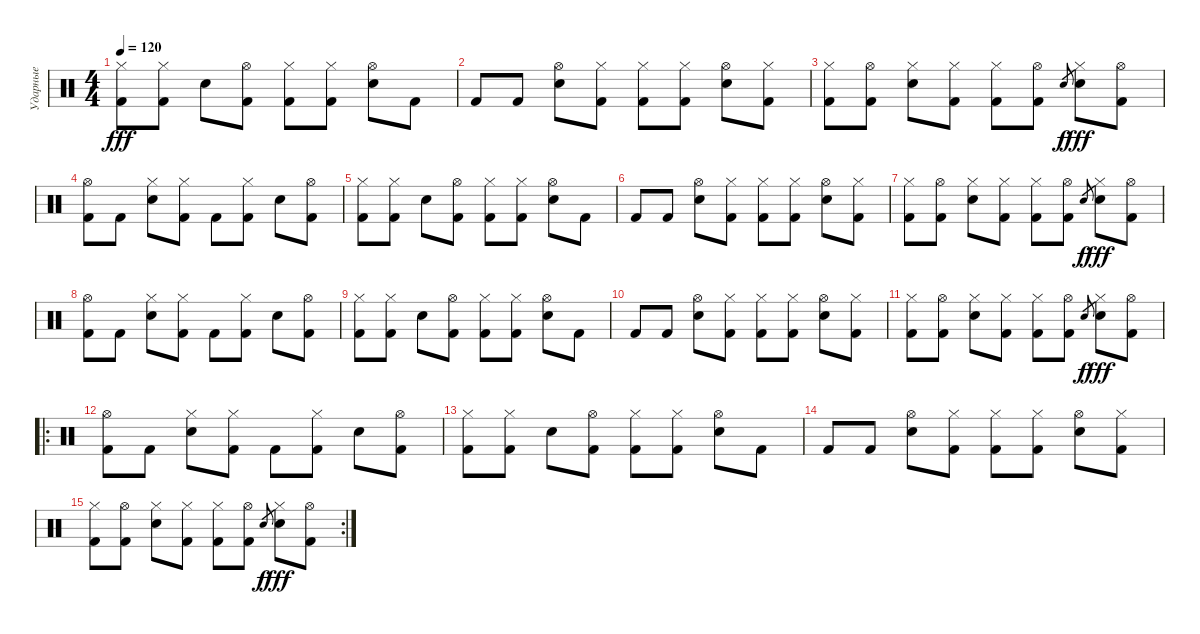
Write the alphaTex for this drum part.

\track ("Ударные" "Ударные") {instrument percussion}
\staff {score}
\articulation defaults
\ts (4 4)
\tempo 120
\clef neutral
\ks c
("Hi-Hat (closed)" "Kick (hit) 2").8{dy fff} ("Hi-Hat (closed)" "Kick (hit) 2").8 "Electric Snare (hit)".8 ("Hi-Hat (open)" "Kick (hit) 2").8 ("Hi-Hat (closed)" "Kick (hit) 2").8 ("Hi-Hat (closed)" "Kick (hit) 2").8 ("Hi-Hat (open)" "Electric Snare (hit)").8 "Kick (hit) 2".8 |
"Kick (hit) 2".8 "Kick (hit) 2".8 ("Hi-Hat (open)" "Electric Snare (hit)").8 ("Hi-Hat (closed)" "Kick (hit) 2").8 ("Hi-Hat (closed)" "Kick (hit) 2").8 ("Hi-Hat (closed)" "Kick (hit) 2").8 ("Hi-Hat (open)" "Electric Snare (hit)").8 ("Hi-Hat (closed)" "Kick (hit) 2").8 |
("Hi-Hat (closed)" "Kick (hit) 2").8 ("Hi-Hat (open)" "Kick (hit) 2").8 ("Hi-Hat (closed)" "Electric Snare (hit)").8 ("Hi-Hat (closed)" "Kick (hit) 2").8 ("Hi-Hat (closed)" "Kick (hit) 2").8 ("Hi-Hat (open)" "Kick (hit) 2").8 "Electric Snare (hit)".8{gr dy f} ("Hi-Hat (closed)" "Electric Snare (hit)").8{dy fff} ("Hi-Hat (open)" "Kick (hit) 2").8 |
("Hi-Hat (open)" "Kick (hit) 2").8 "Kick (hit) 2".8 ("Hi-Hat (closed)" "Electric Snare (hit)").8 ("Hi-Hat (closed)" "Kick (hit) 2").8 "Kick (hit) 2".8 ("Hi-Hat (closed)" "Kick (hit) 2").8 "Electric Snare (hit)".8 ("Hi-Hat (open)" "Kick (hit) 2").8 |
("Hi-Hat (closed)" "Kick (hit) 2").8 ("Hi-Hat (closed)" "Kick (hit) 2").8 "Electric Snare (hit)".8 ("Hi-Hat (open)" "Kick (hit) 2").8 ("Hi-Hat (closed)" "Kick (hit) 2").8 ("Hi-Hat (closed)" "Kick (hit) 2").8 ("Hi-Hat (open)" "Electric Snare (hit)").8 "Kick (hit) 2".8 |
"Kick (hit) 2".8 "Kick (hit) 2".8 ("Hi-Hat (open)" "Electric Snare (hit)").8 ("Hi-Hat (closed)" "Kick (hit) 2").8 ("Hi-Hat (closed)" "Kick (hit) 2").8 ("Hi-Hat (closed)" "Kick (hit) 2").8 ("Hi-Hat (open)" "Electric Snare (hit)").8 ("Hi-Hat (closed)" "Kick (hit) 2").8 |
("Hi-Hat (closed)" "Kick (hit) 2").8 ("Hi-Hat (open)" "Kick (hit) 2").8 ("Hi-Hat (closed)" "Electric Snare (hit)").8 ("Hi-Hat (closed)" "Kick (hit) 2").8 ("Hi-Hat (closed)" "Kick (hit) 2").8 ("Hi-Hat (open)" "Kick (hit) 2").8 "Electric Snare (hit)".8{gr dy f} ("Hi-Hat (closed)" "Electric Snare (hit)").8{dy fff} ("Hi-Hat (open)" "Kick (hit) 2").8 |
("Hi-Hat (open)" "Kick (hit) 2").8 "Kick (hit) 2".8 ("Hi-Hat (closed)" "Electric Snare (hit)").8 ("Hi-Hat (closed)" "Kick (hit) 2").8 "Kick (hit) 2".8 ("Hi-Hat (closed)" "Kick (hit) 2").8 "Electric Snare (hit)".8 ("Hi-Hat (open)" "Kick (hit) 2").8 |
("Hi-Hat (closed)" "Kick (hit) 2").8 ("Hi-Hat (closed)" "Kick (hit) 2").8 "Electric Snare (hit)".8 ("Hi-Hat (open)" "Kick (hit) 2").8 ("Hi-Hat (closed)" "Kick (hit) 2").8 ("Hi-Hat (closed)" "Kick (hit) 2").8 ("Hi-Hat (open)" "Electric Snare (hit)").8 "Kick (hit) 2".8 |
"Kick (hit) 2".8 "Kick (hit) 2".8 ("Hi-Hat (open)" "Electric Snare (hit)").8 ("Hi-Hat (closed)" "Kick (hit) 2").8 ("Hi-Hat (closed)" "Kick (hit) 2").8 ("Hi-Hat (closed)" "Kick (hit) 2").8 ("Hi-Hat (open)" "Electric Snare (hit)").8 ("Hi-Hat (closed)" "Kick (hit) 2").8 |
("Hi-Hat (closed)" "Kick (hit) 2").8 ("Hi-Hat (open)" "Kick (hit) 2").8 ("Hi-Hat (closed)" "Electric Snare (hit)").8 ("Hi-Hat (closed)" "Kick (hit) 2").8 ("Hi-Hat (closed)" "Kick (hit) 2").8 ("Hi-Hat (open)" "Kick (hit) 2").8 "Electric Snare (hit)".8{gr dy f} ("Hi-Hat (closed)" "Electric Snare (hit)").8{dy fff} ("Hi-Hat (open)" "Kick (hit) 2").8 |
\ro
("Hi-Hat (open)" "Kick (hit) 2").8 "Kick (hit) 2".8 ("Hi-Hat (closed)" "Electric Snare (hit)").8 ("Hi-Hat (closed)" "Kick (hit) 2").8 "Kick (hit) 2".8 ("Hi-Hat (closed)" "Kick (hit) 2").8 "Electric Snare (hit)".8 ("Hi-Hat (open)" "Kick (hit) 2").8 |
("Hi-Hat (closed)" "Kick (hit) 2").8 ("Hi-Hat (closed)" "Kick (hit) 2").8 "Electric Snare (hit)".8 ("Hi-Hat (open)" "Kick (hit) 2").8 ("Hi-Hat (closed)" "Kick (hit) 2").8 ("Hi-Hat (closed)" "Kick (hit) 2").8 ("Hi-Hat (open)" "Electric Snare (hit)").8 "Kick (hit) 2".8 |
"Kick (hit) 2".8 "Kick (hit) 2".8 ("Hi-Hat (open)" "Electric Snare (hit)").8 ("Hi-Hat (closed)" "Kick (hit) 2").8 ("Hi-Hat (closed)" "Kick (hit) 2").8 ("Hi-Hat (closed)" "Kick (hit) 2").8 ("Hi-Hat (open)" "Electric Snare (hit)").8 ("Hi-Hat (closed)" "Kick (hit) 2").8 |
\rc 2
("Hi-Hat (closed)" "Kick (hit) 2").8 ("Hi-Hat (open)" "Kick (hit) 2").8 ("Hi-Hat (closed)" "Electric Snare (hit)").8 ("Hi-Hat (closed)" "Kick (hit) 2").8 ("Hi-Hat (closed)" "Kick (hit) 2").8 ("Hi-Hat (open)" "Kick (hit) 2").8 "Electric Snare (hit)".8{gr dy f} ("Hi-Hat (closed)" "Electric Snare (hit)").8{dy fff} ("Hi-Hat (open)" "Kick (hit) 2").8
